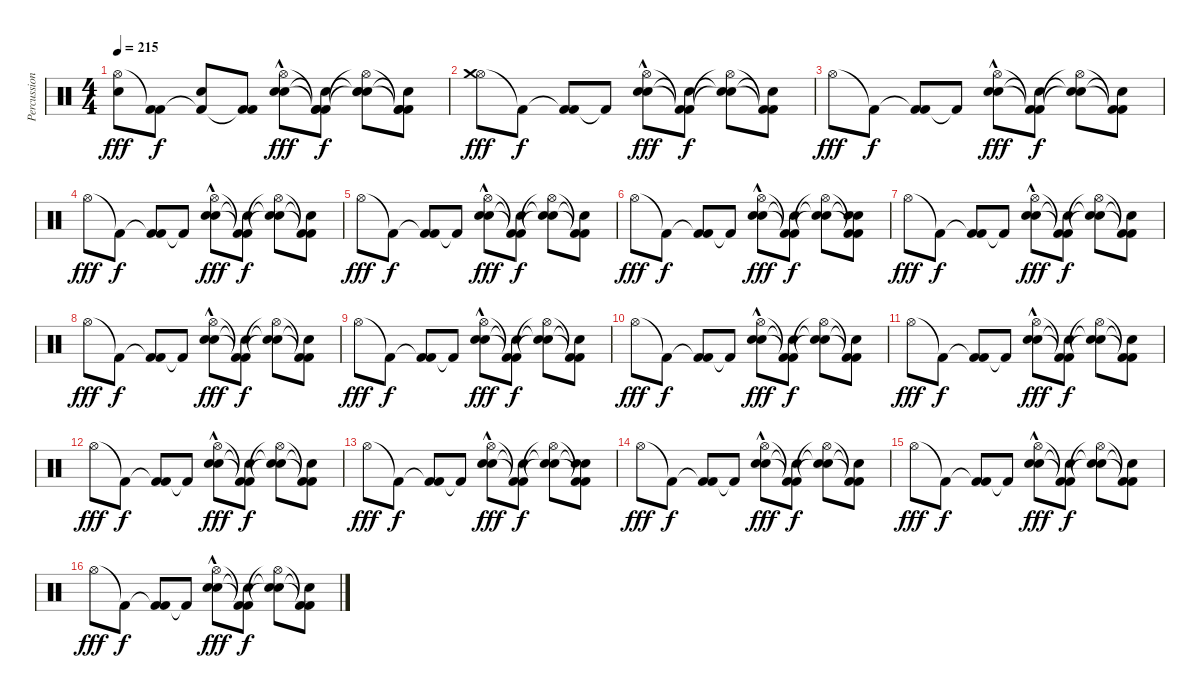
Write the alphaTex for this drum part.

\track ("Percussion" "Percussion") {instrument percussion}
\staff {score}
\articulation defaults
\ts (4 4)
\tempo 215
\clef neutral
\ks c
("Hi-Hat (open)" "Electric Snare (hit)").8{dy fff} ("Kick (hit) 2"{t} "Kick (hit) 2").8{dy f} ("Kick (hit) 2"{t} "Electric Snare (hit)").8 ("Kick (hit) 2"{t} "Kick (hit) 2").8 ("Snare (hit) 2"{hac} "Hi-Hat (open)"{hac} "Electric Snare (hit)").8{dy fff} ("Kick (hit) 2"{t} "Kick (hit) 2"{t} "Snare (hit)"{t} "Kick (hit) 2").8{dy f} ("Snare (hit)"{t} "Hi-Hat (open)"{t} "Snare (hit)"{t} "Electric Snare (hit)").8 ("Kick (hit) 2"{t} "Kick (hit) 2"{t} "Snare (hit)"{t} "Kick (hit) 2").8 |
("Hi-Hat (open)" "Crash medium (hit)").8{dy fff} "Kick (hit) 2"{t}.8{dy f} ("Kick (hit) 2"{t} "Kick (hit) 2").8 "Kick (hit) 2"{t}.8 ("Snare (hit) 2"{hac} "Hi-Hat (open)"{hac} "Electric Snare (hit)").8{dy fff} ("Kick (hit) 2"{t} "Kick (hit) 2"{t} "Snare (hit)"{t}).8{dy f} ("Snare (hit)"{t} "Hi-Hat (open)"{t} "Snare (hit)"{t}).8 ("Kick (hit) 2"{t} "Kick (hit) 2"{t} "Snare (hit)"{t}).8 |
"Hi-Hat (open)".8{dy fff} "Kick (hit) 2"{t}.8{dy f} ("Kick (hit) 2"{t} "Kick (hit) 2").8 "Kick (hit) 2"{t}.8 ("Snare (hit) 2"{hac} "Hi-Hat (open)"{hac} "Electric Snare (hit)").8{dy fff} ("Kick (hit) 2"{t} "Kick (hit) 2"{t} "Snare (hit)"{t}).8{dy f} ("Snare (hit)"{t} "Hi-Hat (open)"{t} "Snare (hit)"{t}).8 ("Kick (hit) 2"{t} "Kick (hit) 2"{t} "Snare (hit)"{t}).8 |
"Hi-Hat (open)".8{dy fff} "Kick (hit) 2"{t}.8{dy f} ("Kick (hit) 2"{t} "Kick (hit) 2").8 "Kick (hit) 2"{t}.8 ("Snare (hit) 2"{hac} "Hi-Hat (open)"{hac} "Electric Snare (hit)").8{dy fff} ("Kick (hit) 2"{t} "Kick (hit) 2"{t} "Snare (hit)"{t}).8{dy f} ("Snare (hit)"{t} "Hi-Hat (open)"{t} "Snare (hit)"{t}).8 ("Kick (hit) 2"{t} "Kick (hit) 2"{t} "Snare (hit)"{t}).8 |
"Hi-Hat (open)".8{dy fff} "Kick (hit) 2"{t}.8{dy f} ("Kick (hit) 2"{t} "Kick (hit) 2").8 "Kick (hit) 2"{t}.8 ("Snare (hit) 2"{hac} "Hi-Hat (open)"{hac} "Electric Snare (hit)").8{dy fff} ("Kick (hit) 2"{t} "Kick (hit) 2"{t} "Snare (hit)"{t}).8{dy f} ("Snare (hit)"{t} "Hi-Hat (open)"{t} "Snare (hit)"{t}).8 ("Kick (hit) 2"{t} "Kick (hit) 2"{t} "Snare (hit)"{t}).8 |
"Hi-Hat (open)".8{dy fff} "Kick (hit) 2"{t}.8{dy f} ("Kick (hit) 2"{t} "Kick (hit) 2").8 "Kick (hit) 2"{t}.8 ("Snare (hit) 2"{hac} "Hi-Hat (open)"{hac} "Electric Snare (hit)").8{dy fff} ("Kick (hit) 2"{t} "Kick (hit) 2"{t} "Snare (hit)"{t}).8{dy f} ("Snare (hit)"{t} "Hi-Hat (open)"{t} "Snare (hit)"{t}).8 ("Kick (hit) 2"{t} "Kick (hit) 2"{t} "Snare (hit)"{t} "Electric Snare (hit)").8 |
"Hi-Hat (open)".8{dy fff} "Kick (hit) 2"{t}.8{dy f} ("Kick (hit) 2"{t} "Kick (hit) 2").8 "Kick (hit) 2"{t}.8 ("Snare (hit) 2"{hac} "Hi-Hat (open)"{hac} "Electric Snare (hit)").8{dy fff} ("Kick (hit) 2"{t} "Kick (hit) 2"{t} "Snare (hit)"{t}).8{dy f} ("Snare (hit)"{t} "Hi-Hat (open)"{t} "Snare (hit)"{t}).8 ("Kick (hit) 2"{t} "Kick (hit) 2"{t} "Snare (hit)"{t}).8 |
"Hi-Hat (open)".8{dy fff} "Kick (hit) 2"{t}.8{dy f} ("Kick (hit) 2"{t} "Kick (hit) 2").8 "Kick (hit) 2"{t}.8 ("Snare (hit) 2"{hac} "Hi-Hat (open)"{hac} "Electric Snare (hit)").8{dy fff} ("Kick (hit) 2"{t} "Kick (hit) 2"{t} "Snare (hit)"{t}).8{dy f} ("Snare (hit)"{t} "Hi-Hat (open)"{t} "Snare (hit)"{t}).8 ("Kick (hit) 2"{t} "Kick (hit) 2"{t} "Snare (hit)"{t}).8 |
"Hi-Hat (open)".8{dy fff} "Kick (hit) 2"{t}.8{dy f} ("Kick (hit) 2"{t} "Kick (hit) 2").8 "Kick (hit) 2"{t}.8 ("Snare (hit) 2"{hac} "Hi-Hat (open)"{hac} "Electric Snare (hit)").8{dy fff} ("Kick (hit) 2"{t} "Kick (hit) 2"{t} "Snare (hit)"{t}).8{dy f} ("Snare (hit)"{t} "Hi-Hat (open)"{t} "Snare (hit)"{t}).8 ("Kick (hit) 2"{t} "Kick (hit) 2"{t} "Snare (hit)"{t}).8 |
"Hi-Hat (open)".8{dy fff} "Kick (hit) 2"{t}.8{dy f} ("Kick (hit) 2"{t} "Kick (hit) 2").8 "Kick (hit) 2"{t}.8 ("Snare (hit) 2"{hac} "Hi-Hat (open)"{hac} "Electric Snare (hit)").8{dy fff} ("Kick (hit) 2"{t} "Kick (hit) 2"{t} "Snare (hit)"{t}).8{dy f} ("Snare (hit)"{t} "Hi-Hat (open)"{t} "Snare (hit)"{t}).8 ("Kick (hit) 2"{t} "Kick (hit) 2"{t} "Snare (hit)"{t}).8 |
"Hi-Hat (open)".8{dy fff} "Kick (hit) 2"{t}.8{dy f} ("Kick (hit) 2"{t} "Kick (hit) 2").8 "Kick (hit) 2"{t}.8 ("Snare (hit) 2"{hac} "Hi-Hat (open)"{hac} "Electric Snare (hit)").8{dy fff} ("Kick (hit) 2"{t} "Kick (hit) 2"{t} "Snare (hit)"{t}).8{dy f} ("Snare (hit)"{t} "Hi-Hat (open)"{t} "Snare (hit)"{t}).8 ("Kick (hit) 2"{t} "Kick (hit) 2"{t} "Snare (hit)"{t}).8 |
"Hi-Hat (open)".8{dy fff} "Kick (hit) 2"{t}.8{dy f} ("Kick (hit) 2"{t} "Kick (hit) 2").8 "Kick (hit) 2"{t}.8 ("Snare (hit) 2"{hac} "Hi-Hat (open)"{hac} "Electric Snare (hit)").8{dy fff} ("Kick (hit) 2"{t} "Kick (hit) 2"{t} "Snare (hit)"{t}).8{dy f} ("Snare (hit)"{t} "Hi-Hat (open)"{t} "Snare (hit)"{t}).8 ("Kick (hit) 2"{t} "Kick (hit) 2"{t} "Snare (hit)"{t}).8 |
"Hi-Hat (open)".8{dy fff} "Kick (hit) 2"{t}.8{dy f} ("Kick (hit) 2"{t} "Kick (hit) 2").8 "Kick (hit) 2"{t}.8 ("Snare (hit) 2"{hac} "Hi-Hat (open)"{hac} "Electric Snare (hit)").8{dy fff} ("Kick (hit) 2"{t} "Kick (hit) 2"{t} "Snare (hit)"{t}).8{dy f} ("Snare (hit)"{t} "Hi-Hat (open)"{t} "Snare (hit)"{t}).8 ("Kick (hit) 2"{t} "Kick (hit) 2"{t} "Snare (hit)"{t} "Electric Snare (hit)").8 |
"Hi-Hat (open)".8{dy fff} "Kick (hit) 2"{t}.8{dy f} ("Kick (hit) 2"{t} "Kick (hit) 2").8 "Kick (hit) 2"{t}.8 ("Snare (hit) 2"{hac} "Hi-Hat (open)"{hac} "Electric Snare (hit)").8{dy fff} ("Kick (hit) 2"{t} "Kick (hit) 2"{t} "Snare (hit)"{t}).8{dy f} ("Snare (hit)"{t} "Hi-Hat (open)"{t} "Snare (hit)"{t}).8 ("Kick (hit) 2"{t} "Kick (hit) 2"{t} "Snare (hit)"{t}).8 |
"Hi-Hat (open)".8{dy fff} "Kick (hit) 2"{t}.8{dy f} ("Kick (hit) 2"{t} "Kick (hit) 2").8 "Kick (hit) 2"{t}.8 ("Snare (hit) 2"{hac} "Hi-Hat (open)"{hac} "Electric Snare (hit)").8{dy fff} ("Kick (hit) 2"{t} "Kick (hit) 2"{t} "Snare (hit)"{t}).8{dy f} ("Snare (hit)"{t} "Hi-Hat (open)"{t} "Snare (hit)"{t}).8 ("Kick (hit) 2"{t} "Kick (hit) 2"{t} "Snare (hit)"{t}).8 |
"Hi-Hat (open)".8{dy fff} "Kick (hit) 2"{t}.8{dy f} ("Kick (hit) 2"{t} "Kick (hit) 2").8 "Kick (hit) 2"{t}.8 ("Snare (hit) 2"{hac} "Hi-Hat (open)"{hac} "Electric Snare (hit)").8{dy fff} ("Kick (hit) 2"{t} "Kick (hit) 2"{t} "Snare (hit)"{t}).8{dy f} ("Snare (hit)"{t} "Hi-Hat (open)"{t} "Snare (hit)"{t}).8 ("Kick (hit) 2"{t} "Kick (hit) 2"{t} "Snare (hit)"{t}).8
